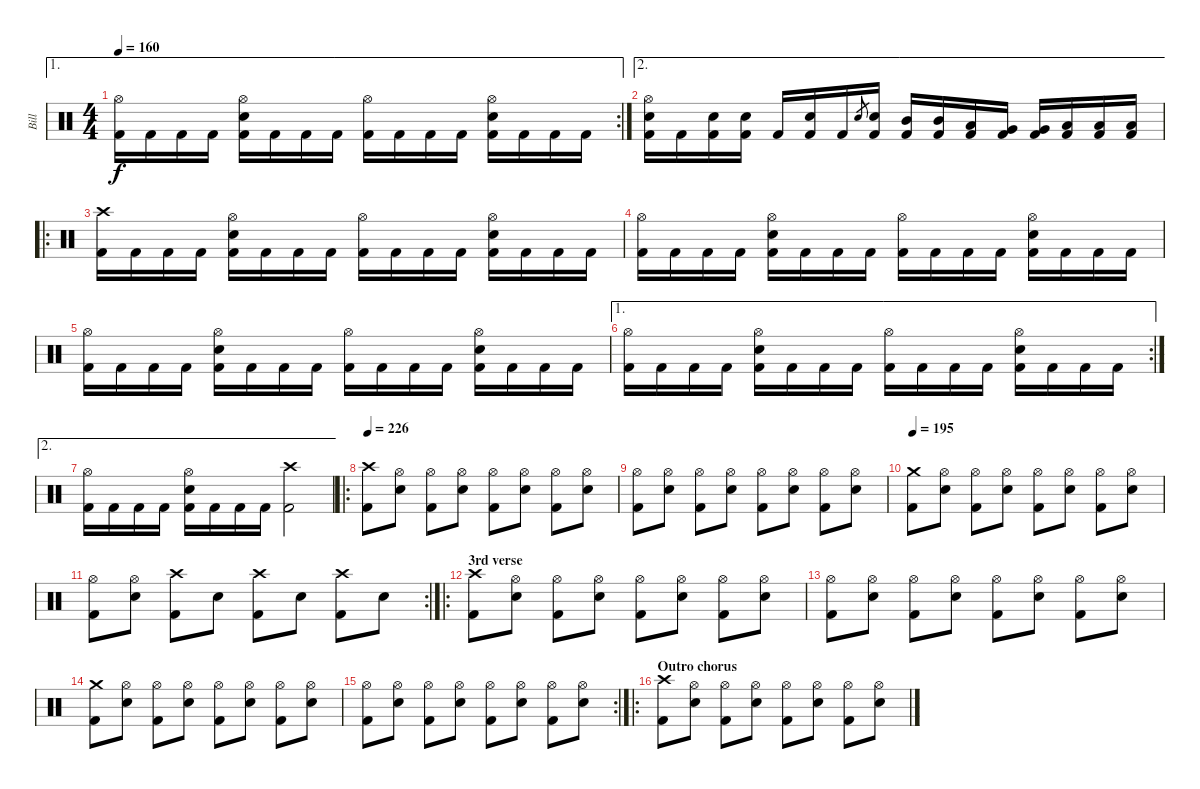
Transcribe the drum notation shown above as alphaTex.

\track ("Bill" "Bill") {instrument percussion}
\staff {score}
\articulation defaults
\ae 1
\rc 2
\ts (4 4)
\tempo 160
\clef neutral
\ks c
("Hi-Hat (open)" "Kick (hit) 2").16{dy f} "Kick (hit) 2".16 "Kick (hit) 2".16 "Kick (hit) 2".16 ("Hi-Hat (open)" "Electric Snare (hit)" "Kick (hit) 2").16 "Kick (hit) 2".16 "Kick (hit) 2".16 "Kick (hit) 2".16 ("Hi-Hat (open)" "Kick (hit) 2").16 "Kick (hit) 2".16 "Kick (hit) 2".16 "Kick (hit) 2".16 ("Hi-Hat (open)" "Electric Snare (hit)" "Kick (hit) 2").16 "Kick (hit) 2".16 "Kick (hit) 2".16 "Kick (hit) 2".16 |
\ae 2
("Hi-Hat (open)" "Electric Snare (hit)" "Kick (hit) 2").16 "Kick (hit) 2".16 ("Electric Snare (hit)" "Kick (hit) 2").16 ("Electric Snare (hit)" "Kick (hit) 2").16 "Kick (hit) 2".16 ("Electric Snare (hit)" "Kick (hit) 2").16 "Kick (hit) 2".16 "Electric Snare (hit)".8{gr} ("Electric Snare (hit)" "Kick (hit) 2").16 ("Mid Tom (hit)" "Kick (hit) 2").16 ("Mid Tom (hit)" "Kick (hit) 2").16 ("Low Tom (hit)" "Kick (hit) 2").16 ("Very Low Tom (hit)" "Kick (hit) 2").16 ("Very Low Tom (hit)" "Kick (hit) 2").16 ("Low Floor Tom (hit)" "Kick (hit) 2").16 ("Low Floor Tom (hit)" "Kick (hit) 2").16 ("Low Floor Tom (hit)" "Kick (hit) 2").16 |
\ro
("Crash high (hit)" "Kick (hit) 2").16 "Kick (hit) 2".16 "Kick (hit) 2".16 "Kick (hit) 2".16 ("Hi-Hat (open)" "Electric Snare (hit)" "Kick (hit) 2").16 "Kick (hit) 2".16 "Kick (hit) 2".16 "Kick (hit) 2".16 ("Hi-Hat (open)" "Kick (hit) 2").16 "Kick (hit) 2".16 "Kick (hit) 2".16 "Kick (hit) 2".16 ("Hi-Hat (open)" "Electric Snare (hit)" "Kick (hit) 2").16 "Kick (hit) 2".16 "Kick (hit) 2".16 "Kick (hit) 2".16 |
("Hi-Hat (open)" "Kick (hit) 2").16 "Kick (hit) 2".16 "Kick (hit) 2".16 "Kick (hit) 2".16 ("Hi-Hat (open)" "Electric Snare (hit)" "Kick (hit) 2").16 "Kick (hit) 2".16 "Kick (hit) 2".16 "Kick (hit) 2".16 ("Hi-Hat (open)" "Kick (hit) 2").16 "Kick (hit) 2".16 "Kick (hit) 2".16 "Kick (hit) 2".16 ("Hi-Hat (open)" "Electric Snare (hit)" "Kick (hit) 2").16 "Kick (hit) 2".16 "Kick (hit) 2".16 "Kick (hit) 2".16 |
("Hi-Hat (open)" "Kick (hit) 2").16 "Kick (hit) 2".16 "Kick (hit) 2".16 "Kick (hit) 2".16 ("Hi-Hat (open)" "Electric Snare (hit)" "Kick (hit) 2").16 "Kick (hit) 2".16 "Kick (hit) 2".16 "Kick (hit) 2".16 ("Hi-Hat (open)" "Kick (hit) 2").16 "Kick (hit) 2".16 "Kick (hit) 2".16 "Kick (hit) 2".16 ("Hi-Hat (open)" "Electric Snare (hit)" "Kick (hit) 2").16 "Kick (hit) 2".16 "Kick (hit) 2".16 "Kick (hit) 2".16 |
\ae 1
\rc 2
("Hi-Hat (open)" "Kick (hit) 2").16 "Kick (hit) 2".16 "Kick (hit) 2".16 "Kick (hit) 2".16 ("Hi-Hat (open)" "Electric Snare (hit)" "Kick (hit) 2").16 "Kick (hit) 2".16 "Kick (hit) 2".16 "Kick (hit) 2".16 ("Hi-Hat (open)" "Kick (hit) 2").16 "Kick (hit) 2".16 "Kick (hit) 2".16 "Kick (hit) 2".16 ("Hi-Hat (open)" "Electric Snare (hit)" "Kick (hit) 2").16 "Kick (hit) 2".16 "Kick (hit) 2".16 "Kick (hit) 2".16 |
\ae 2
("Hi-Hat (open)" "Kick (hit) 2").16 "Kick (hit) 2".16 "Kick (hit) 2".16 "Kick (hit) 2".16 ("Hi-Hat (open)" "Electric Snare (hit)" "Kick (hit) 2").16 "Kick (hit) 2".16 "Kick (hit) 2".16 "Kick (hit) 2".16 ("Crash high (hit)" "Kick (hit) 2").2 |
\ro
\tempo 226
("Crash high (hit)" "Kick (hit) 2").8 ("Hi-Hat (open)" "Electric Snare (hit)").8 ("Hi-Hat (open)" "Kick (hit) 2").8 ("Hi-Hat (open)" "Electric Snare (hit)").8 ("Hi-Hat (open)" "Kick (hit) 2").8 ("Hi-Hat (open)" "Electric Snare (hit)").8 ("Hi-Hat (open)" "Kick (hit) 2").8 ("Hi-Hat (open)" "Electric Snare (hit)").8 |
("Hi-Hat (open)" "Kick (hit) 2").8 ("Hi-Hat (open)" "Electric Snare (hit)").8 ("Hi-Hat (open)" "Kick (hit) 2").8 ("Hi-Hat (open)" "Electric Snare (hit)").8 ("Hi-Hat (open)" "Kick (hit) 2").8 ("Hi-Hat (open)" "Electric Snare (hit)").8 ("Hi-Hat (open)" "Kick (hit) 2").8 ("Hi-Hat (open)" "Electric Snare (hit)").8 |
\tempo 195
("Crash medium (hit)" "Kick (hit) 2").8 ("Hi-Hat (open)" "Electric Snare (hit)").8 ("Hi-Hat (open)" "Kick (hit) 2").8 ("Hi-Hat (open)" "Electric Snare (hit)").8 ("Hi-Hat (open)" "Kick (hit) 2").8 ("Hi-Hat (open)" "Electric Snare (hit)").8 ("Hi-Hat (open)" "Kick (hit) 2").8 ("Hi-Hat (open)" "Electric Snare (hit)").8 |
\rc 2
("Hi-Hat (open)" "Kick (hit) 2").8 ("Hi-Hat (open)" "Electric Snare (hit)").8 ("Crash high (hit)" "Kick (hit) 2").8 "Electric Snare (hit)".8 ("Crash high (hit)" "Kick (hit) 2").8 "Electric Snare (hit)".8 ("Crash high (hit)" "Kick (hit) 2").8 "Electric Snare (hit)".8 |
\ro
\section ("" "3rd verse")
("Crash high (hit)" "Kick (hit) 2").8 ("Hi-Hat (open)" "Electric Snare (hit)").8 ("Hi-Hat (open)" "Kick (hit) 2").8 ("Hi-Hat (open)" "Electric Snare (hit)").8 ("Hi-Hat (open)" "Kick (hit) 2").8 ("Hi-Hat (open)" "Electric Snare (hit)").8 ("Hi-Hat (open)" "Kick (hit) 2").8 ("Hi-Hat (open)" "Electric Snare (hit)").8 |
("Hi-Hat (open)" "Kick (hit) 2").8 ("Hi-Hat (open)" "Electric Snare (hit)").8 ("Hi-Hat (open)" "Kick (hit) 2").8 ("Hi-Hat (open)" "Electric Snare (hit)").8 ("Hi-Hat (open)" "Kick (hit) 2").8 ("Hi-Hat (open)" "Electric Snare (hit)").8 ("Hi-Hat (open)" "Kick (hit) 2").8 ("Hi-Hat (open)" "Electric Snare (hit)").8 |
("Crash medium (hit)" "Kick (hit) 2").8 ("Hi-Hat (open)" "Electric Snare (hit)").8 ("Hi-Hat (open)" "Kick (hit) 2").8 ("Hi-Hat (open)" "Electric Snare (hit)").8 ("Hi-Hat (open)" "Kick (hit) 2").8 ("Hi-Hat (open)" "Electric Snare (hit)").8 ("Hi-Hat (open)" "Kick (hit) 2").8 ("Hi-Hat (open)" "Electric Snare (hit)").8 |
\rc 2
("Hi-Hat (open)" "Kick (hit) 2").8 ("Hi-Hat (open)" "Electric Snare (hit)").8 ("Hi-Hat (open)" "Kick (hit) 2").8 ("Hi-Hat (open)" "Electric Snare (hit)").8 ("Hi-Hat (open)" "Kick (hit) 2").8 ("Hi-Hat (open)" "Electric Snare (hit)").8 ("Hi-Hat (open)" "Kick (hit) 2").8 ("Hi-Hat (open)" "Electric Snare (hit)").8 |
\ro
\section ("" "Outro chorus")
("Crash high (hit)" "Kick (hit) 2").8 ("Hi-Hat (open)" "Electric Snare (hit)").8 ("Hi-Hat (open)" "Kick (hit) 2").8 ("Hi-Hat (open)" "Electric Snare (hit)").8 ("Hi-Hat (open)" "Kick (hit) 2").8 ("Hi-Hat (open)" "Electric Snare (hit)").8 ("Hi-Hat (open)" "Kick (hit) 2").8 ("Hi-Hat (open)" "Electric Snare (hit)").8
